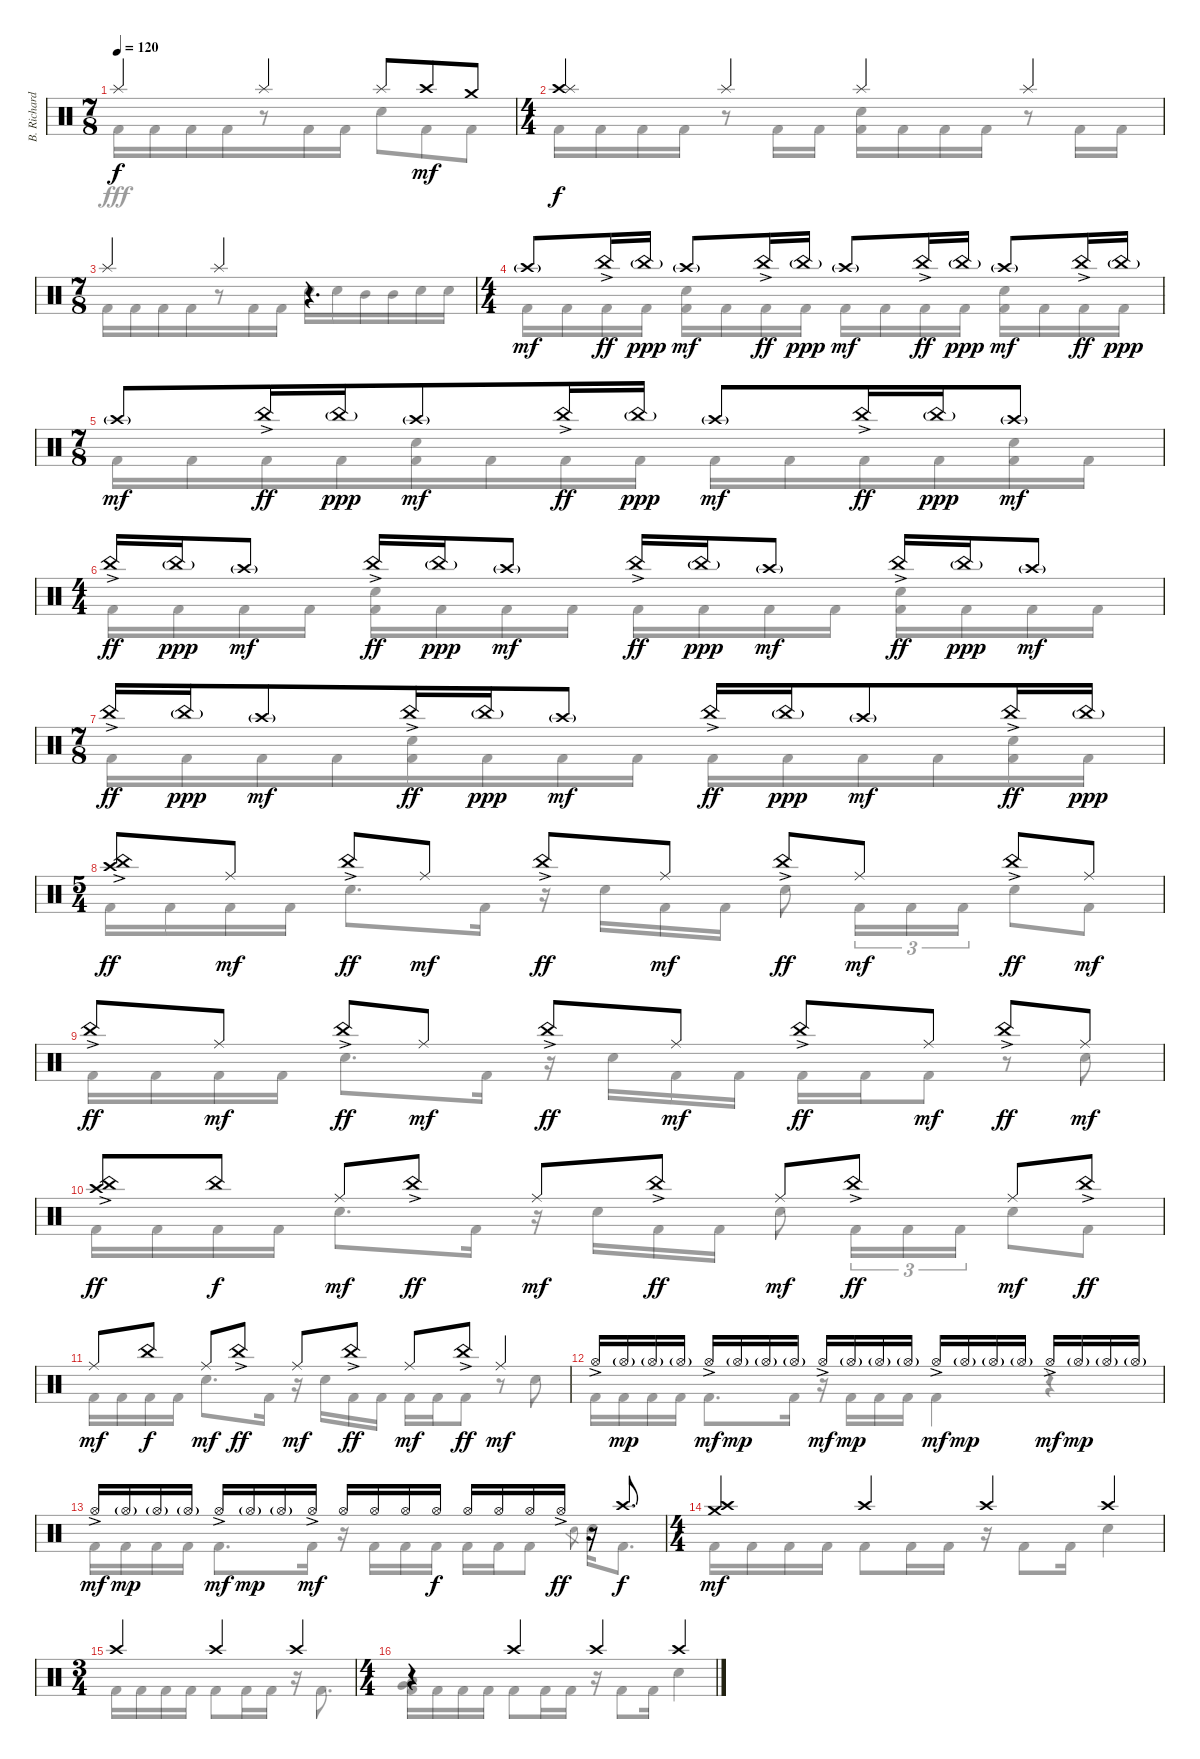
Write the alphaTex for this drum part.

\track ("B. Richardson Drums" "B. Richard") {instrument percussion}
\staff {score}
\articulation defaults
\voice
\ts (7 8)
\tempo 120
\clef neutral
\ks c "Splash (hit)".4{dy f} "Splash (hit)".4 "Splash (hit)".8 "Crash high (hit)".8{dy mf} "Crash medium (hit)".8
|
\ts (4 4)
("Crash high (hit)" "Splash (hit)").4{dy f} "Splash (hit)".4 "Splash (hit)".4 "Splash (hit)".4 |
\ts (7 8)
"Splash (hit)".4 "Splash (hit)".4 r.4{d} |
\ts (4 4)
"Crash high (hit)"{g}.8{dy mf} "China (hit)"{ac}.16{dy ff} "China (hit)"{g}.16{dy ppp} "Crash high (hit)"{g}.8{dy mf} "China (hit)"{ac}.16{dy ff} "China (hit)"{g}.16{dy ppp} "Crash high (hit)"{g}.8{dy mf} "China (hit)"{ac}.16{dy ff} "China (hit)"{g}.16{dy ppp} "Crash high (hit)"{g}.8{dy mf} "China (hit)"{ac}.16{dy ff} "China (hit)"{g}.16{dy ppp} |
\ts (7 8)
"Crash high (hit)"{g}.8{dy mf} "China (hit)"{ac}.16{dy ff} "China (hit)"{g}.16{dy ppp} "Crash high (hit)"{g}.8{dy mf} "China (hit)"{ac}.16{dy ff} "China (hit)"{g}.16{dy ppp} "Crash high (hit)"{g}.8{dy mf} "China (hit)"{ac}.16{dy ff} "China (hit)"{g}.16{dy ppp} "Crash high (hit)"{g}.8{dy mf} |
\ts (4 4)
"China (hit)"{ac}.16{dy ff} "China (hit)"{g}.16{dy ppp} "Crash high (hit)"{g}.8{dy mf} "China (hit)"{ac}.16{dy ff} "China (hit)"{g}.16{dy ppp} "Crash high (hit)"{g}.8{dy mf} "China (hit)"{ac}.16{dy ff} "China (hit)"{g}.16{dy ppp} "Crash high (hit)"{g}.8{dy mf} "China (hit)"{ac}.16{dy ff} "China (hit)"{g}.16{dy ppp} "Crash high (hit)"{g}.8{dy mf} |
\ts (7 8)
"China (hit)"{ac}.16{dy ff} "China (hit)"{g}.16{dy ppp} "Crash high (hit)"{g}.8{dy mf} "China (hit)"{ac}.16{dy ff} "China (hit)"{g}.16{dy ppp} "Crash high (hit)"{g}.8{dy mf} "China (hit)"{ac}.16{dy ff} "China (hit)"{g}.16{dy ppp} "Crash high (hit)"{g}.8{dy mf} "China (hit)"{ac}.16{dy ff} "China (hit)"{g}.16{dy ppp} |
\ts (5 4)
("Crash high (hit)" "China (hit)"{ac}).8{dy ff} "Ride (middle)".8{dy mf} "China (hit)"{ac}.8{dy ff} "Ride (middle)".8{dy mf} "China (hit)"{ac}.8{dy ff} "Ride (middle)".8{dy mf} "China (hit)"{ac}.8{dy ff} "Ride (middle)".8{dy mf} "China (hit)"{ac}.8{dy ff} "Ride (middle)".8{dy mf} |
"China (hit)"{ac}.8{dy ff} "Ride (middle)".8{dy mf} "China (hit)"{ac}.8{dy ff} "Ride (middle)".8{dy mf} "China (hit)"{ac}.8{dy ff} "Ride (middle)".8{dy mf} "China (hit)"{ac}.8{dy ff} "Ride (middle)".8{dy mf} "China (hit)"{ac}.8{dy ff} "Ride (middle)".8{dy mf} |
("Crash high (hit)" "China (hit)"{ac}).8{dy ff} "China (hit)".8{dy f} "Ride (middle)".8{dy mf} "China (hit)"{ac}.8{dy ff} "Ride (middle)".8{dy mf} "China (hit)"{ac}.8{dy ff} "Ride (middle)".8{dy mf} "China (hit)"{ac}.8{dy ff} "Ride (middle)".8{dy mf} "China (hit)"{ac}.8{dy ff} |
"Ride (middle)".8{dy mf} "China (hit)".8{dy f} "Ride (middle)".8{dy mf} "China (hit)"{ac}.8{dy ff} "Ride (middle)".8{dy mf} "China (hit)"{ac}.8{dy ff} "Ride (middle)".8{dy mf} "China (hit)"{ac}.8{dy ff} "Ride (middle)".4{dy mf} |
"Hi-Hat (open)"{ac}.16 "Hi-Hat (open)"{g}.16{dy mp} "Hi-Hat (open)"{g}.16 "Hi-Hat (open)"{g}.16 "Hi-Hat (open)"{ac}.16{dy mf} "Hi-Hat (open)"{g}.16{dy mp} "Hi-Hat (open)"{g}.16 "Hi-Hat (open)"{g}.16 "Hi-Hat (open)"{ac}.16{dy mf} "Hi-Hat (open)"{g}.16{dy mp} "Hi-Hat (open)"{g}.16 "Hi-Hat (open)"{g}.16 "Hi-Hat (open)"{ac}.16{dy mf} "Hi-Hat (open)"{g}.16{dy mp} "Hi-Hat (open)"{g}.16 "Hi-Hat (open)"{g}.16 "Hi-Hat (open)"{ac}.16{dy mf} "Hi-Hat (open)"{g}.16{dy mp} "Hi-Hat (open)"{g}.16 "Hi-Hat (open)"{g}.16 |
"Hi-Hat (open)"{ac}.16{dy mf} "Hi-Hat (open)"{g}.16{dy mp} "Hi-Hat (open)"{g}.16 "Hi-Hat (open)"{g}.16 "Hi-Hat (open)"{ac}.16{dy mf} "Hi-Hat (open)"{g}.16{dy mp} "Hi-Hat (open)"{g}.16 "Hi-Hat (open)"{ac}.16{dy mf} "Hi-Hat (open)".16 "Hi-Hat (open)".16 "Hi-Hat (open)".16 "Hi-Hat (open)".16{dy f} "Hi-Hat (open)".16 "Hi-Hat (open)".16 "Hi-Hat (open)".16 "Hi-Hat (open)"{ac}.16{dy ff} r.16 "Crash high (hit)".8{d dy f} |
\ts (4 4)
("Crash high (hit)" "Crash medium (hit)").4{dy mf} "Crash high (hit)".4 "Crash high (hit)".4 "Crash high (hit)".4 |
\ts (3 4)
"Crash high (hit)".4 "Crash high (hit)".4 "Crash high (hit)".4 |
\ts (4 4)
r.4 "Crash high (hit)".4 "Crash high (hit)".4 "Crash high (hit)".4
\voice
\clef neutral
\ottava regular
\simile none
\ks c "Kick (hit) 2".16{dy fff} "Kick (hit) 2".16 "Kick (hit) 2".16 "Kick (hit) 2".16
r.8 "Kick (hit) 2".16 "Kick (hit) 2".16 "Electric Snare (hit)".8 "Kick (hit) 2".8 "Kick (hit) 2".8 |
"Kick (hit) 2".16 "Kick (hit) 2".16 "Kick (hit) 2".16 "Kick (hit) 2".16 r.8 "Kick (hit) 2".16 "Kick (hit) 2".16 ("Electric Snare (hit)" "Kick (hit) 2").16 "Kick (hit) 2".16 "Kick (hit) 2".16 "Kick (hit) 2".16 r.8 "Kick (hit) 2".16 "Kick (hit) 2".16 |
"Kick (hit) 2".16 "Kick (hit) 2".16 "Kick (hit) 2".16 "Kick (hit) 2".16 r.8 "Kick (hit) 2".16 "Kick (hit) 2".16 "Electric Snare (hit)".16 "Electric Snare (hit)".16 "Mid Tom (hit)".16 "Mid Tom (hit)".16 "Electric Snare (hit)".16 "Electric Snare (hit)".16 |
"Kick (hit) 2".16 "Kick (hit) 2".16 "Kick (hit) 2".16 "Kick (hit) 2".16 ("Electric Snare (hit)" "Kick (hit) 2").16 "Kick (hit) 2".16 "Kick (hit) 2".16 "Kick (hit) 2".16 "Kick (hit) 2".16 "Kick (hit) 2".16 "Kick (hit) 2".16 "Kick (hit) 2".16 ("Electric Snare (hit)" "Kick (hit) 2").16 "Kick (hit) 2".16 "Kick (hit) 2".16 "Kick (hit) 2".16 |
"Kick (hit) 2".16 "Kick (hit) 2".16 "Kick (hit) 2".16 "Kick (hit) 2".16 ("Electric Snare (hit)" "Kick (hit) 2").16 "Kick (hit) 2".16 "Kick (hit) 2".16 "Kick (hit) 2".16 "Kick (hit) 2".16 "Kick (hit) 2".16 "Kick (hit) 2".16 "Kick (hit) 2".16 ("Electric Snare (hit)" "Kick (hit) 2").16 "Kick (hit) 2".16 |
"Kick (hit) 2".16 "Kick (hit) 2".16 "Kick (hit) 2".16 "Kick (hit) 2".16 ("Electric Snare (hit)" "Kick (hit) 2").16 "Kick (hit) 2".16 "Kick (hit) 2".16 "Kick (hit) 2".16 "Kick (hit) 2".16 "Kick (hit) 2".16 "Kick (hit) 2".16 "Kick (hit) 2".16 ("Electric Snare (hit)" "Kick (hit) 2").16 "Kick (hit) 2".16 "Kick (hit) 2".16 "Kick (hit) 2".16 |
"Kick (hit) 2".16 "Kick (hit) 2".16 "Kick (hit) 2".16 "Kick (hit) 2".16 ("Electric Snare (hit)" "Kick (hit) 2").16 "Kick (hit) 2".16 "Kick (hit) 2".16 "Kick (hit) 2".16 "Kick (hit) 2".16 "Kick (hit) 2".16 "Kick (hit) 2".16 "Kick (hit) 2".16 ("Electric Snare (hit)" "Kick (hit) 2").16 "Kick (hit) 2".16 |
"Kick (hit) 2".16 "Kick (hit) 2".16 "Kick (hit) 2".16 "Kick (hit) 2".16 "Electric Snare (hit)".8{d} "Kick (hit) 2".16 r.16 "Electric Snare (hit)".16 "Kick (hit) 2".16 "Kick (hit) 2".16 "Electric Snare (hit)".8 "Kick (hit) 2".16{tu (3 2)} "Kick (hit) 2".16{tu (3 2)} "Kick (hit) 2".16{tu (3 2)} "Electric Snare (hit)".8 "Kick (hit) 2".8 |
"Kick (hit) 2".16 "Kick (hit) 2".16 "Kick (hit) 2".16 "Kick (hit) 2".16 "Electric Snare (hit)".8{d} "Kick (hit) 2".16 r.16 "Electric Snare (hit)".16 "Kick (hit) 2".16 "Kick (hit) 2".16 "Kick (hit) 2".16 "Kick (hit) 2".16 "Kick (hit) 2".8 r.8 "Electric Snare (hit)".8 |
"Kick (hit) 2".16 "Kick (hit) 2".16 "Kick (hit) 2".16 "Kick (hit) 2".16 "Electric Snare (hit)".8{d} "Kick (hit) 2".16 r.16 "Electric Snare (hit)".16 "Kick (hit) 2".16 "Kick (hit) 2".16 "Electric Snare (hit)".8 "Kick (hit) 2".16{tu (3 2)} "Kick (hit) 2".16{tu (3 2)} "Kick (hit) 2".16{tu (3 2)} "Electric Snare (hit)".8 "Kick (hit) 2".8 |
"Kick (hit) 2".16 "Kick (hit) 2".16 "Kick (hit) 2".16 "Kick (hit) 2".16 "Electric Snare (hit)".8{d} "Kick (hit) 2".16 r.16 "Electric Snare (hit)".16 "Kick (hit) 2".16 "Kick (hit) 2".16 "Kick (hit) 2".16 "Kick (hit) 2".16 "Kick (hit) 2".8 r.8 "Electric Snare (hit)".8 |
"Kick (hit) 2".16 "Kick (hit) 2".16 "Kick (hit) 2".16 "Kick (hit) 2".16 "Kick (hit) 2".8{d} "Kick (hit) 2".16 r.16 "Kick (hit) 2".16 "Kick (hit) 2".16 "Kick (hit) 2".16 "Kick (hit) 2".4 r.4 |
"Kick (hit) 2".16 "Kick (hit) 2".16 "Kick (hit) 2".16 "Kick (hit) 2".16 "Kick (hit) 2".8{d} "Kick (hit) 2".16 r.16 "Kick (hit) 2".16 "Kick (hit) 2".16 "Kick (hit) 2".16 "Kick (hit) 2".16 "Kick (hit) 2".16 "Kick (hit) 2".8 "Electric Snare (hit)".8{gr} "Electric Snare (hit)".16 "Kick (hit) 2".8{d} |
"Kick (hit) 2".16 "Kick (hit) 2".16 "Kick (hit) 2".16 "Kick (hit) 2".16 "Kick (hit) 2".8 "Kick (hit) 2".16 "Kick (hit) 2".16 r.16 "Kick (hit) 2".8 "Kick (hit) 2".16 "Electric Snare (hit)".4 |
"Kick (hit) 2".16 "Kick (hit) 2".16 "Kick (hit) 2".16 "Kick (hit) 2".16 "Kick (hit) 2".8 "Kick (hit) 2".16 "Kick (hit) 2".16 r.16 "Kick (hit) 2".8{d} |
("Low Tom (hit)" "Very Low Tom (hit)" "Kick (hit) 2").16 "Kick (hit) 2".16 "Kick (hit) 2".16 "Kick (hit) 2".16 "Kick (hit) 2".8 "Kick (hit) 2".16 "Kick (hit) 2".16 r.16 "Kick (hit) 2".8 "Kick (hit) 2".16 "Electric Snare (hit)".4
